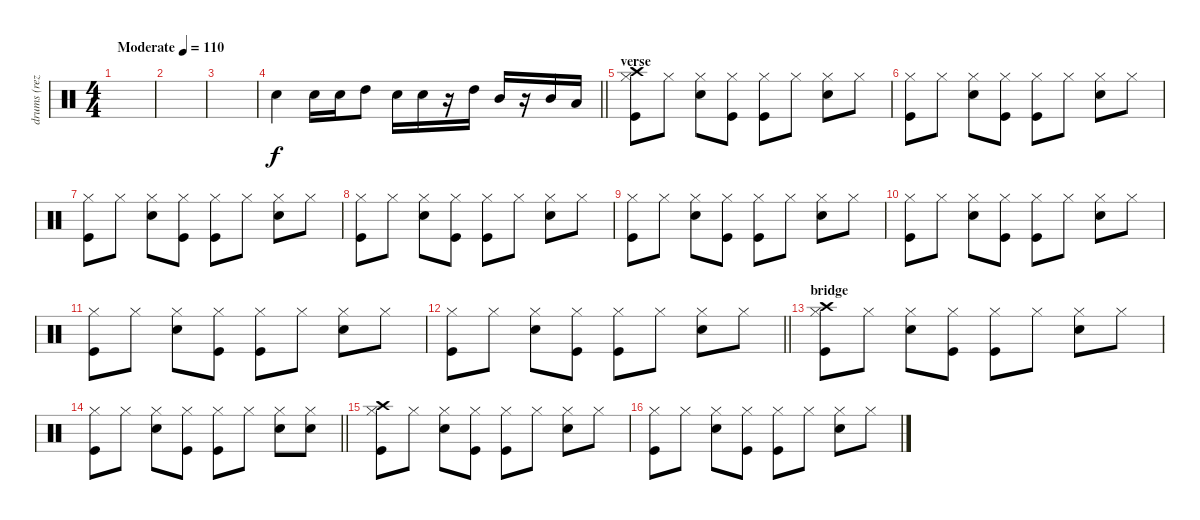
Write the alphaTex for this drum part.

\track ("drums (reza)" "drums (rez") {instrument percussion}
\staff {score}
\articulation defaults
\ts (4 4)
\tempo (110 "Moderate")
\clef neutral
\ks c
|
|
|
\barLineRight lightlight "Snare (hit) 2".4 "Snare (hit) 2".16 "Snare (hit) 2".16 "High Tom (hit)".8 "Snare (hit) 2".16 "Snare (hit) 2".16
r.16 "High Tom (hit)".16 "Mid Tom (hit)".16 r.16 "Mid Tom (hit)".16 "Low Tom (hit)".16 |
\section ("" "verse")
("Hi-Hat (closed)" "Kick (hit)" "Crash high (hit)").8 "Hi-Hat (closed)".8 ("Hi-Hat (closed)" "Snare (hit) 2").8 ("Hi-Hat (closed)" "Kick (hit)").8 ("Hi-Hat (closed)" "Kick (hit)").8 "Hi-Hat (closed)".8 ("Hi-Hat (closed)" "Snare (hit) 2").8 "Hi-Hat (closed)".8 |
("Hi-Hat (closed)" "Kick (hit)").8 "Hi-Hat (closed)".8 ("Hi-Hat (closed)" "Snare (hit) 2").8 ("Hi-Hat (closed)" "Kick (hit)").8 ("Hi-Hat (closed)" "Kick (hit)").8 "Hi-Hat (closed)".8 ("Hi-Hat (closed)" "Snare (hit) 2").8 "Hi-Hat (closed)".8 |
("Hi-Hat (closed)" "Kick (hit)").8 "Hi-Hat (closed)".8 ("Hi-Hat (closed)" "Snare (hit) 2").8 ("Hi-Hat (closed)" "Kick (hit)").8 ("Hi-Hat (closed)" "Kick (hit)").8 "Hi-Hat (closed)".8 ("Hi-Hat (closed)" "Snare (hit) 2").8 "Hi-Hat (closed)".8 |
("Hi-Hat (closed)" "Kick (hit)").8 "Hi-Hat (closed)".8 ("Hi-Hat (closed)" "Snare (hit) 2").8 ("Hi-Hat (closed)" "Kick (hit)").8 ("Hi-Hat (closed)" "Kick (hit)").8 "Hi-Hat (closed)".8 ("Hi-Hat (closed)" "Snare (hit) 2").8 "Hi-Hat (closed)".8 |
("Hi-Hat (closed)" "Kick (hit)").8 "Hi-Hat (closed)".8 ("Hi-Hat (closed)" "Snare (hit) 2").8 ("Hi-Hat (closed)" "Kick (hit)").8 ("Hi-Hat (closed)" "Kick (hit)").8 "Hi-Hat (closed)".8 ("Hi-Hat (closed)" "Snare (hit) 2").8 "Hi-Hat (closed)".8 |
("Hi-Hat (closed)" "Kick (hit)").8 "Hi-Hat (closed)".8 ("Hi-Hat (closed)" "Snare (hit) 2").8 ("Hi-Hat (closed)" "Kick (hit)").8 ("Hi-Hat (closed)" "Kick (hit)").8 "Hi-Hat (closed)".8 ("Hi-Hat (closed)" "Snare (hit) 2").8 "Hi-Hat (closed)".8 |
("Hi-Hat (closed)" "Kick (hit)").8 "Hi-Hat (closed)".8 ("Hi-Hat (closed)" "Snare (hit) 2").8 ("Hi-Hat (closed)" "Kick (hit)").8 ("Hi-Hat (closed)" "Kick (hit)").8 "Hi-Hat (closed)".8 ("Hi-Hat (closed)" "Snare (hit) 2").8 "Hi-Hat (closed)".8 |
\barLineRight lightlight
("Hi-Hat (closed)" "Kick (hit)").8 "Hi-Hat (closed)".8 ("Hi-Hat (closed)" "Snare (hit) 2").8 ("Hi-Hat (closed)" "Kick (hit)").8 ("Hi-Hat (closed)" "Kick (hit)").8 "Hi-Hat (closed)".8 ("Hi-Hat (closed)" "Snare (hit) 2").8 "Hi-Hat (closed)".8 |
\section ("" "bridge")
("Hi-Hat (closed)" "Kick (hit)" "Crash high (hit)").8 "Hi-Hat (closed)".8 ("Hi-Hat (closed)" "Snare (hit) 2").8 ("Hi-Hat (closed)" "Kick (hit)").8 ("Hi-Hat (closed)" "Kick (hit)").8 "Hi-Hat (closed)".8 ("Hi-Hat (closed)" "Snare (hit) 2").8 "Hi-Hat (closed)".8 |
\barLineRight lightlight
("Hi-Hat (closed)" "Kick (hit)").8 "Hi-Hat (closed)".8 ("Hi-Hat (closed)" "Snare (hit) 2").8 ("Hi-Hat (closed)" "Kick (hit)").8 ("Hi-Hat (closed)" "Kick (hit)").8 "Hi-Hat (closed)".8 ("Hi-Hat (closed)" "Snare (hit) 2").8 ("Hi-Hat (closed)" "Snare (hit) 2").8 |
("Hi-Hat (closed)" "Kick (hit)" "Crash high (hit)").8 "Hi-Hat (closed)".8 ("Hi-Hat (closed)" "Snare (hit) 2").8 ("Hi-Hat (closed)" "Kick (hit)").8 ("Hi-Hat (closed)" "Kick (hit)").8 "Hi-Hat (closed)".8 ("Hi-Hat (closed)" "Snare (hit) 2").8 "Hi-Hat (closed)".8 |
("Hi-Hat (closed)" "Kick (hit)").8 "Hi-Hat (closed)".8 ("Hi-Hat (closed)" "Snare (hit) 2").8 ("Hi-Hat (closed)" "Kick (hit)").8 ("Hi-Hat (closed)" "Kick (hit)").8 "Hi-Hat (closed)".8 ("Hi-Hat (closed)" "Snare (hit) 2").8 "Hi-Hat (closed)".8
